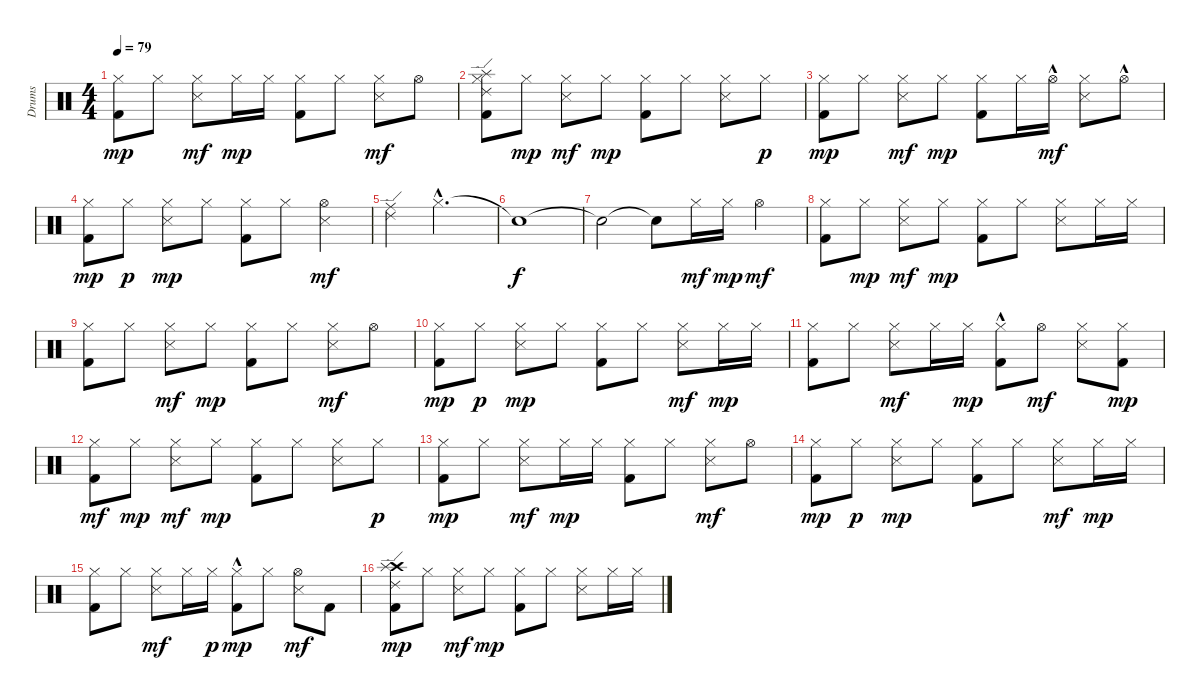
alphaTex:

\track ("Drums" "Drums") {instrument percussion}
\staff {score}
\articulation defaults
\ts (4 4)
\tempo 79
\clef neutral
\ks c
("Kick (hit) 2" "Hi-Hat (closed)").8{dy mp} "Hi-Hat (closed)".8 ("Snare (side stick) 3" "Hi-Hat (closed)").8{dy mf} "Hi-Hat (closed)".16{dy mp} "Hi-Hat (closed)".16 ("Kick (hit) 2" "Hi-Hat (closed)").8 "Hi-Hat (closed)".8 ("Snare (side stick) 3" "Hi-Hat (closed)").8{dy mf} "Hi-Hat (open)".8 |
("Kick (hit) 2" "Hi-Hat (closed)" "Splash (hit)" "Ride (edge) 2").8 "Hi-Hat (closed)".8{dy mp} ("Snare (side stick) 3" "Hi-Hat (closed)").8{dy mf} "Hi-Hat (closed)".8{dy mp} ("Kick (hit) 2" "Hi-Hat (closed)").8 "Hi-Hat (closed)".8 ("Snare (side stick) 3" "Hi-Hat (closed)").8 "Hi-Hat (closed)".8{dy p} |
("Kick (hit) 2" "Hi-Hat (closed)").8{dy mp} "Hi-Hat (closed)".8 ("Snare (side stick) 3" "Hi-Hat (closed)").8{dy mf} "Hi-Hat (closed)".8{dy mp} ("Kick (hit) 2" "Hi-Hat (closed)").8 "Hi-Hat (closed)".16 "Hi-Hat (open)"{hac}.16{dy mf} ("Snare (side stick) 3" "Hi-Hat (closed)").8 "Hi-Hat (open)"{hac}.8 |
("Kick (hit) 2" "Hi-Hat (closed)").8{dy mp} "Hi-Hat (closed)".8{dy p} ("Snare (side stick) 3" "Hi-Hat (closed)").8{dy mp} "Hi-Hat (closed)".8 ("Kick (hit) 2" "Hi-Hat (closed)").8 "Hi-Hat (closed)".8 ("Snare (side stick) 3" "Hi-Hat (open)").4{dy mf} |
("Ride (edge) 2" "Ride (middle)").4 "Hi-Hat (closed)"{hac}.2{d} |
"Snare (hit)"{t}.1{dy f} |
"Snare (hit)"{t}.2 "Snare (hit)"{t}.8 "Hi-Hat (closed)".16{dy mf} "Hi-Hat (closed)".16{dy mp} "Hi-Hat (open)".4{dy mf} |
("Kick (hit) 2" "Hi-Hat (closed)").8 "Hi-Hat (closed)".8{dy mp} ("Snare (side stick) 3" "Hi-Hat (closed)").8{dy mf} "Hi-Hat (closed)".8{dy mp} ("Kick (hit) 2" "Hi-Hat (closed)").8 "Hi-Hat (closed)".8 ("Snare (side stick) 3" "Hi-Hat (closed)").8 "Hi-Hat (closed)".16 "Hi-Hat (closed)".16 |
("Kick (hit) 2" "Hi-Hat (closed)").8 "Hi-Hat (closed)".8 ("Snare (side stick) 3" "Hi-Hat (closed)").8{dy mf} "Hi-Hat (closed)".8{dy mp} ("Kick (hit) 2" "Hi-Hat (closed)").8 "Hi-Hat (closed)".8 ("Snare (side stick) 3" "Hi-Hat (closed)").8{dy mf} "Hi-Hat (open)".8 |
("Kick (hit) 2" "Hi-Hat (closed)").8{dy mp} "Hi-Hat (closed)".8{dy p} ("Snare (side stick) 3" "Hi-Hat (closed)").8{dy mp} "Hi-Hat (closed)".8 ("Kick (hit) 2" "Hi-Hat (closed)").8 "Hi-Hat (closed)".8 ("Snare (side stick) 3" "Hi-Hat (closed)").8{dy mf} "Hi-Hat (closed)".16{dy mp} "Hi-Hat (closed)".16 |
("Kick (hit) 2" "Hi-Hat (closed)").8 "Hi-Hat (closed)".8 ("Snare (side stick) 3" "Hi-Hat (closed)").8{dy mf} "Hi-Hat (closed)".16 "Hi-Hat (closed)".16{dy mp} ("Kick (hit) 2"{hac} "Hi-Hat (closed)").8 "Hi-Hat (open)".8{dy mf} ("Snare (side stick) 3" "Hi-Hat (closed)").8 ("Kick (hit) 2" "Hi-Hat (closed)").8{dy mp} |
("Kick (hit) 2" "Hi-Hat (closed)").8{dy mf} "Hi-Hat (closed)".8{dy mp} ("Snare (side stick) 3" "Hi-Hat (closed)").8{dy mf} "Hi-Hat (closed)".8{dy mp} ("Kick (hit) 2" "Hi-Hat (closed)").8 "Hi-Hat (closed)".8 ("Snare (side stick) 3" "Hi-Hat (closed)").8 "Hi-Hat (closed)".8{dy p} |
("Kick (hit) 2" "Hi-Hat (closed)").8{dy mp} "Hi-Hat (closed)".8 ("Snare (side stick) 3" "Hi-Hat (closed)").8{dy mf} "Hi-Hat (closed)".16{dy mp} "Hi-Hat (closed)".16 ("Kick (hit) 2" "Hi-Hat (closed)").8 "Hi-Hat (closed)".8 ("Snare (side stick) 3" "Hi-Hat (closed)").8{dy mf} "Hi-Hat (open)".8 |
("Kick (hit) 2" "Hi-Hat (closed)").8{dy mp} "Hi-Hat (closed)".8{dy p} ("Snare (side stick) 3" "Hi-Hat (closed)").8{dy mp} "Hi-Hat (closed)".8 ("Kick (hit) 2" "Hi-Hat (closed)").8 "Hi-Hat (closed)".8 ("Snare (side stick) 3" "Hi-Hat (closed)").8{dy mf} "Hi-Hat (closed)".16{dy mp} "Hi-Hat (closed)".16 |
("Kick (hit) 2" "Hi-Hat (closed)").8 "Hi-Hat (closed)".8 ("Snare (side stick) 3" "Hi-Hat (closed)").8{dy mf} "Hi-Hat (closed)".16 "Hi-Hat (closed)".16{dy p} ("Kick (hit) 2"{hac} "Hi-Hat (closed)").8{dy mp} "Hi-Hat (closed)".8 ("Snare (side stick) 3" "Hi-Hat (open)").8{dy mf} "Kick (hit) 2".8 |
("Kick (hit) 2" "Crash high (hit)" "Splash (hit)" "Ride (edge) 2").8{dy mp} "Hi-Hat (closed)".8 ("Snare (side stick) 3" "Hi-Hat (closed)").8{dy mf} "Hi-Hat (closed)".8{dy mp} ("Kick (hit) 2" "Hi-Hat (closed)").8 "Hi-Hat (closed)".8 ("Snare (side stick) 3" "Hi-Hat (closed)").8 "Hi-Hat (closed)".16 "Hi-Hat (closed)".16
